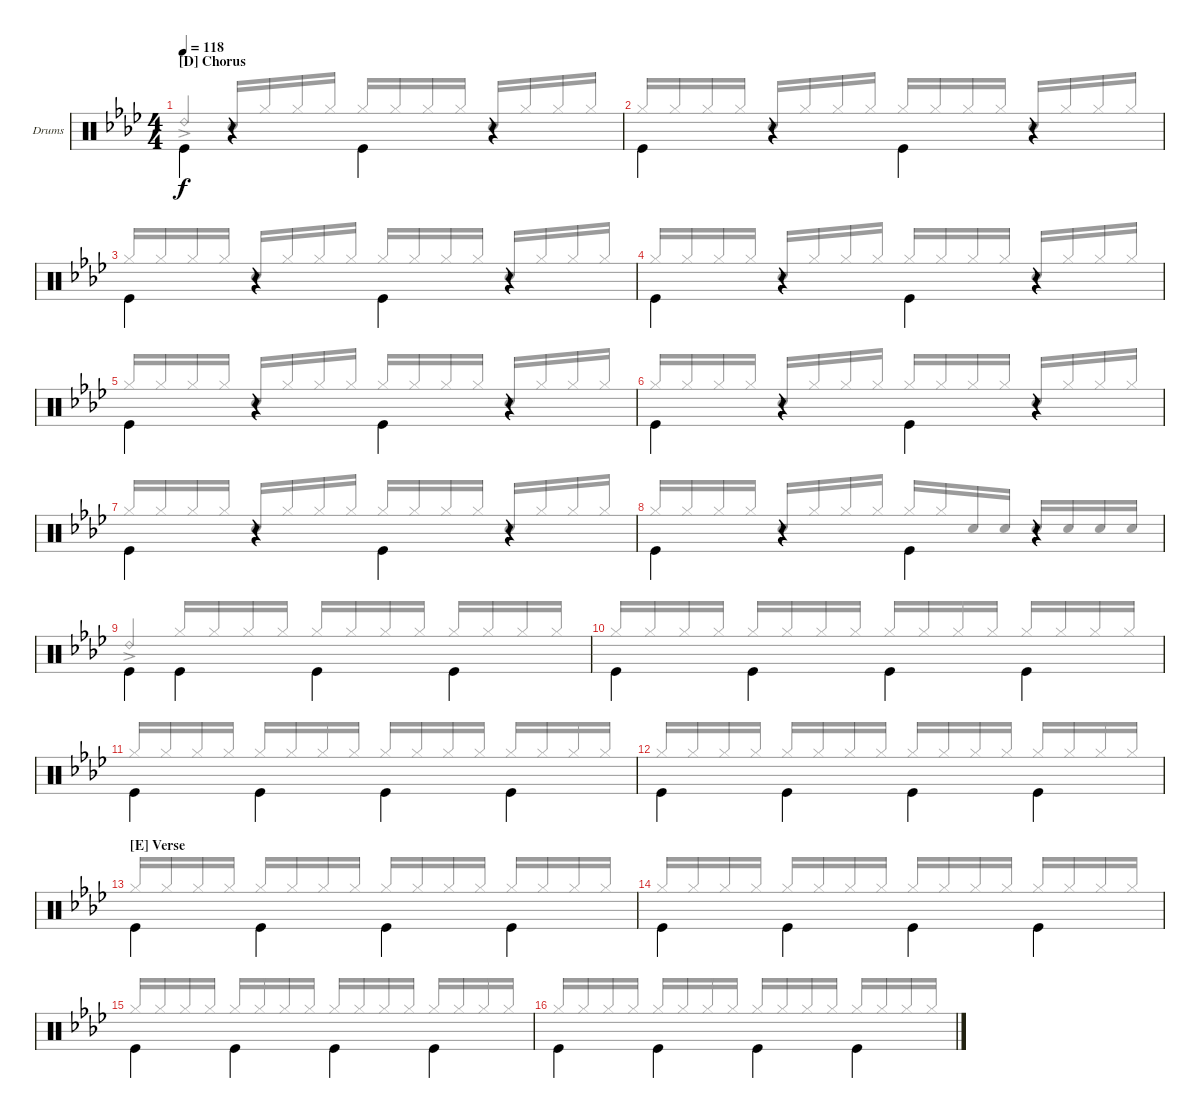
\bracketExtendMode groupsimilarinstruments
\firstSystemTrackNameOrientation horizontal
\otherSystemsTrackNameOrientation horizontal
\track ("Drums" "Drums") {instrument percussion}
\staff {score}
\articulation defaults
\voice
\ts (4 4)
\section ("D" "Chorus")
\tempo 118
\clef neutral
\scale
0.5
\ks ab "Kick (hit)".4{dy f beam invert}
r.4{beam invert} "Kick (hit)".4{beam invert} r.4{beam invert} |
\scale
0.5 "Kick (hit)".4{beam invert} r.4{beam invert} "Kick (hit)".4{beam invert} r.4{beam invert} |
\scale
0.5 "Kick (hit)".4{beam invert} r.4{beam invert} "Kick (hit)".4{beam invert} r.4{beam invert} |
\scale
0.5 "Kick (hit)".4{beam invert} r.4{beam invert} "Kick (hit)".4{beam invert} r.4{beam invert} |
\scale
0.5 "Kick (hit)".4{beam invert} r.4{beam invert} "Kick (hit)".4{beam invert} r.4{beam invert} |
\scale
0.5 "Kick (hit)".4{beam invert} r.4{beam invert} "Kick (hit)".4{beam invert} r.4{beam invert} |
\scale
0.5 "Kick (hit)".4{beam invert} r.4{beam invert} "Kick (hit)".4{beam invert} r.4{beam invert} |
\scale
0.5 "Kick (hit)".4{beam invert} r.4{beam invert} "Kick (hit)".4{beam invert} r.4{beam invert} |
\scale
0.5 "Kick (hit)".4{beam invert} "Kick (hit)".4{beam invert} "Kick (hit)".4{beam invert} "Kick (hit)".4{beam invert} |
\scale
0.5 "Kick (hit)".4{beam invert} "Kick (hit)".4{beam invert} "Kick (hit)".4{beam invert} "Kick (hit)".4{beam invert} |
\scale
0.5 "Kick (hit)".4{beam invert} "Kick (hit)".4{beam invert} "Kick (hit)".4{beam invert} "Kick (hit)".4{beam invert} |
\scale
0.5 "Kick (hit)".4{beam invert} "Kick (hit)".4{beam invert} "Kick (hit)".4{beam invert} "Kick (hit)".4{beam invert} |
\section ("E" "Verse")
\scale
0.5 "Kick (hit)".4{beam invert} "Kick (hit)".4{beam invert} "Kick (hit)".4{beam invert} "Kick (hit)".4{beam invert} |
\scale
0.5 "Kick (hit)".4{beam invert} "Kick (hit)".4{beam invert} "Kick (hit)".4{beam invert} "Kick (hit)".4{beam invert} |
\scale
0.5 "Kick (hit)".4{beam invert} "Kick (hit)".4{beam invert} "Kick (hit)".4{beam invert} "Kick (hit)".4{beam invert} |
\scale
0.5 "Kick (hit)".4{beam invert} "Kick (hit)".4{beam invert} "Kick (hit)".4{beam invert} "Kick (hit)".4{beam invert}
\voice
\clef neutral
\ottava regular
\simile none
\scale
0.5
\ks ab "Ride (bell) 2"{ac}.4{dy f beam invert} "Snare (hit) 2".16{beam invert beam merge} "Hi-Hat (closed)".16{beam merge} "Hi-Hat (closed)".16{beam merge} "Hi-Hat (closed)".16{beam split} "Hi-Hat (closed)".16{beam invert beam merge} "Hi-Hat (closed)".16{beam merge} "Hi-Hat (closed)".16{beam merge} "Hi-Hat (closed)".16{beam split} "Snare (hit) 2".16{beam invert beam merge} "Hi-Hat (closed)".16{beam merge} "Hi-Hat (closed)".16{beam merge} "Hi-Hat (closed)".16{beam split}
|
\scale
0.5 "Hi-Hat (closed)".16{beam invert beam merge} "Hi-Hat (closed)".16{beam merge} "Hi-Hat (closed)".16{beam merge} "Hi-Hat (closed)".16{beam split} "Snare (hit) 2".16{beam invert beam merge} "Hi-Hat (closed)".16{beam merge} "Hi-Hat (closed)".16{beam merge} "Hi-Hat (closed)".16{beam split} "Hi-Hat (closed)".16{beam invert beam merge} "Hi-Hat (closed)".16{beam merge} "Hi-Hat (closed)".16{beam merge} "Hi-Hat (closed)".16{beam split} "Snare (hit) 2".16{beam invert beam merge} "Hi-Hat (closed)".16{beam merge} "Hi-Hat (closed)".16{beam merge} "Hi-Hat (closed)".16{beam split} |
\scale
0.5 "Hi-Hat (closed)".16{beam invert beam merge} "Hi-Hat (closed)".16{beam merge} "Hi-Hat (closed)".16{beam merge} "Hi-Hat (closed)".16{beam split} "Snare (hit) 2".16{beam invert beam merge} "Hi-Hat (closed)".16{beam merge} "Hi-Hat (closed)".16{beam merge} "Hi-Hat (closed)".16{beam split} "Hi-Hat (closed)".16{beam invert beam merge} "Hi-Hat (closed)".16{beam merge} "Hi-Hat (closed)".16{beam merge} "Hi-Hat (closed)".16{beam split} "Snare (hit) 2".16{beam invert beam merge} "Hi-Hat (closed)".16{beam merge} "Hi-Hat (closed)".16{beam merge} "Hi-Hat (closed)".16{beam split} |
\scale
0.5 "Hi-Hat (closed)".16{beam invert beam merge} "Hi-Hat (closed)".16{beam merge} "Hi-Hat (closed)".16{beam merge} "Hi-Hat (closed)".16{beam split} "Snare (hit) 2".16{beam invert beam merge} "Hi-Hat (closed)".16{beam merge} "Hi-Hat (closed)".16{beam merge} "Hi-Hat (closed)".16{beam split} "Hi-Hat (closed)".16{beam invert beam merge} "Hi-Hat (closed)".16{beam merge} "Hi-Hat (closed)".16{beam merge} "Hi-Hat (closed)".16{beam split} "Snare (hit) 2".16{beam invert beam merge} "Hi-Hat (closed)".16{beam merge} "Hi-Hat (closed)".16{beam merge} "Hi-Hat (closed)".16{beam split} |
\scale
0.5 "Hi-Hat (closed)".16{beam invert beam merge} "Hi-Hat (closed)".16{beam merge} "Hi-Hat (closed)".16{beam merge} "Hi-Hat (closed)".16{beam split} "Snare (hit) 2".16{beam invert beam merge} "Hi-Hat (closed)".16{beam merge} "Hi-Hat (closed)".16{beam merge} "Hi-Hat (closed)".16{beam split} "Hi-Hat (closed)".16{beam invert beam merge} "Hi-Hat (closed)".16{beam merge} "Hi-Hat (closed)".16{beam merge} "Hi-Hat (closed)".16{beam split} "Snare (hit) 2".16{beam invert beam merge} "Hi-Hat (closed)".16{beam merge} "Hi-Hat (closed)".16{beam merge} "Hi-Hat (closed)".16{beam split} |
\scale
0.5 "Hi-Hat (closed)".16{beam invert beam merge} "Hi-Hat (closed)".16{beam merge} "Hi-Hat (closed)".16{beam merge} "Hi-Hat (closed)".16{beam split} "Snare (hit) 2".16{beam invert beam merge} "Hi-Hat (closed)".16{beam merge} "Hi-Hat (closed)".16{beam merge} "Hi-Hat (closed)".16{beam split} "Hi-Hat (closed)".16{beam invert beam merge} "Hi-Hat (closed)".16{beam merge} "Hi-Hat (closed)".16{beam merge} "Hi-Hat (closed)".16{beam split} "Snare (hit) 2".16{beam invert beam merge} "Hi-Hat (closed)".16{beam merge} "Hi-Hat (closed)".16{beam merge} "Hi-Hat (closed)".16{beam split} |
\scale
0.5 "Hi-Hat (closed)".16{beam invert beam merge} "Hi-Hat (closed)".16{beam merge} "Hi-Hat (closed)".16{beam merge} "Hi-Hat (closed)".16{beam split} "Snare (hit) 2".16{beam invert beam merge} "Hi-Hat (closed)".16{beam merge} "Hi-Hat (closed)".16{beam merge} "Hi-Hat (closed)".16{beam split} "Hi-Hat (closed)".16{beam invert beam merge} "Hi-Hat (closed)".16{beam merge} "Hi-Hat (closed)".16{beam merge} "Hi-Hat (closed)".16{beam split} "Snare (hit) 2".16{beam invert beam merge} "Hi-Hat (closed)".16{beam merge} "Hi-Hat (closed)".16{beam merge} "Hi-Hat (closed)".16{beam split} |
\scale
0.5 "Hi-Hat (closed)".16{beam invert beam merge} "Hi-Hat (closed)".16{beam merge} "Hi-Hat (closed)".16{beam merge} "Hi-Hat (closed)".16{beam split} "Snare (hit) 2".16{beam invert beam merge} "Hi-Hat (closed)".16{beam merge} "Hi-Hat (closed)".16{beam merge} "Hi-Hat (closed)".16{beam split} "Hi-Hat (closed)".16{beam invert beam merge} "Hi-Hat (closed)".16{beam merge} "Snare (hit) 2".16 "Snare (hit) 2".16 "Snare (hit) 2".16{beam invert} "Snare (hit) 2".16 "Snare (hit) 2".16 "Snare (hit) 2".16 |
\scale
0.5 "Ride (bell) 2"{ac}.4{beam invert} "Hi-Hat (closed)".16{beam invert beam merge} "Hi-Hat (closed)".16{beam merge} "Hi-Hat (closed)".16{beam merge} "Hi-Hat (closed)".16{beam split} "Hi-Hat (closed)".16{beam invert beam merge} "Hi-Hat (closed)".16{beam merge} "Hi-Hat (closed)".16{beam merge} "Hi-Hat (closed)".16{beam split} "Hi-Hat (closed)".16{beam invert beam merge} "Hi-Hat (closed)".16{beam merge} "Hi-Hat (closed)".16{beam merge} "Hi-Hat (closed)".16{beam split} |
\scale
0.5 "Hi-Hat (closed)".16{beam invert beam merge} "Hi-Hat (closed)".16{beam merge} "Hi-Hat (closed)".16{beam merge} "Hi-Hat (closed)".16{beam split} "Hi-Hat (closed)".16{beam invert beam merge} "Hi-Hat (closed)".16{beam merge} "Hi-Hat (closed)".16{beam merge} "Hi-Hat (closed)".16{beam split} "Hi-Hat (closed)".16{beam invert beam merge} "Hi-Hat (closed)".16{beam merge} "Hi-Hat (closed)".16{beam merge} "Hi-Hat (closed)".16{beam split} "Hi-Hat (closed)".16{beam invert beam merge} "Hi-Hat (closed)".16{beam merge} "Hi-Hat (closed)".16{beam merge} "Hi-Hat (closed)".16{beam split} |
\scale
0.5 "Hi-Hat (closed)".16{beam invert beam merge} "Hi-Hat (closed)".16{beam merge} "Hi-Hat (closed)".16{beam merge} "Hi-Hat (closed)".16{beam split} "Hi-Hat (closed)".16{beam invert beam merge} "Hi-Hat (closed)".16{beam merge} "Hi-Hat (closed)".16{beam merge} "Hi-Hat (closed)".16{beam split} "Hi-Hat (closed)".16{beam invert beam merge} "Hi-Hat (closed)".16{beam merge} "Hi-Hat (closed)".16{beam merge} "Hi-Hat (closed)".16{beam split} "Hi-Hat (closed)".16{beam invert beam merge} "Hi-Hat (closed)".16{beam merge} "Hi-Hat (closed)".16{beam merge} "Hi-Hat (closed)".16{beam split} |
\scale
0.5 "Hi-Hat (closed)".16{beam invert beam merge} "Hi-Hat (closed)".16{beam merge} "Hi-Hat (closed)".16{beam merge} "Hi-Hat (closed)".16{beam split} "Hi-Hat (closed)".16{beam invert beam merge} "Hi-Hat (closed)".16{beam merge} "Hi-Hat (closed)".16{beam merge} "Hi-Hat (closed)".16{beam split} "Hi-Hat (closed)".16{beam invert beam merge} "Hi-Hat (closed)".16{beam merge} "Hi-Hat (closed)".16{beam merge} "Hi-Hat (closed)".16{beam split} "Hi-Hat (closed)".16{beam invert beam merge} "Hi-Hat (closed)".16{beam merge} "Hi-Hat (closed)".16{beam merge} "Hi-Hat (closed)".16{beam split} |
\scale
0.5 "Hi-Hat (closed)".16{beam invert beam merge} "Hi-Hat (closed)".16{beam merge} "Hi-Hat (closed)".16{beam merge} "Hi-Hat (closed)".16{beam split} "Hi-Hat (closed)".16{beam invert beam merge} "Hi-Hat (closed)".16{beam merge} "Hi-Hat (closed)".16{beam merge} "Hi-Hat (closed)".16{beam split} "Hi-Hat (closed)".16{beam invert beam merge} "Hi-Hat (closed)".16{beam merge} "Hi-Hat (closed)".16{beam merge} "Hi-Hat (closed)".16{beam split} "Hi-Hat (closed)".16{beam invert beam merge} "Hi-Hat (closed)".16{beam merge} "Hi-Hat (closed)".16{beam merge} "Hi-Hat (closed)".16{beam split} |
\scale
0.5 "Hi-Hat (closed)".16{beam invert beam merge} "Hi-Hat (closed)".16{beam merge} "Hi-Hat (closed)".16{beam merge} "Hi-Hat (closed)".16{beam split} "Hi-Hat (closed)".16{beam invert beam merge} "Hi-Hat (closed)".16{beam merge} "Hi-Hat (closed)".16{beam merge} "Hi-Hat (closed)".16{beam split} "Hi-Hat (closed)".16{beam invert beam merge} "Hi-Hat (closed)".16{beam merge} "Hi-Hat (closed)".16{beam merge} "Hi-Hat (closed)".16{beam split} "Hi-Hat (closed)".16{beam invert beam merge} "Hi-Hat (closed)".16{beam merge} "Hi-Hat (closed)".16{beam merge} "Hi-Hat (closed)".16{beam split} |
\scale
0.5 "Hi-Hat (closed)".16{beam invert beam merge} "Hi-Hat (closed)".16{beam merge} "Hi-Hat (closed)".16{beam merge} "Hi-Hat (closed)".16{beam split} "Hi-Hat (closed)".16{beam invert beam merge} "Hi-Hat (closed)".16{beam merge} "Hi-Hat (closed)".16{beam merge} "Hi-Hat (closed)".16{beam split} "Hi-Hat (closed)".16{beam invert beam merge} "Hi-Hat (closed)".16{beam merge} "Hi-Hat (closed)".16{beam merge} "Hi-Hat (closed)".16{beam split} "Hi-Hat (closed)".16{beam invert beam merge} "Hi-Hat (closed)".16{beam merge} "Hi-Hat (closed)".16{beam merge} "Hi-Hat (closed)".16{beam split} |
\scale
0.5 "Hi-Hat (closed)".16{beam invert beam merge} "Hi-Hat (closed)".16{beam merge} "Hi-Hat (closed)".16{beam merge} "Hi-Hat (closed)".16{beam split} "Hi-Hat (closed)".16{beam invert beam merge} "Hi-Hat (closed)".16{beam merge} "Hi-Hat (closed)".16{beam merge} "Hi-Hat (closed)".16{beam split} "Hi-Hat (closed)".16{beam invert beam merge} "Hi-Hat (closed)".16{beam merge} "Hi-Hat (closed)".16{beam merge} "Hi-Hat (closed)".16{beam split} "Hi-Hat (closed)".16{beam invert beam merge} "Hi-Hat (closed)".16{beam merge} "Hi-Hat (closed)".16{beam merge} "Hi-Hat (closed)".16{beam split}
